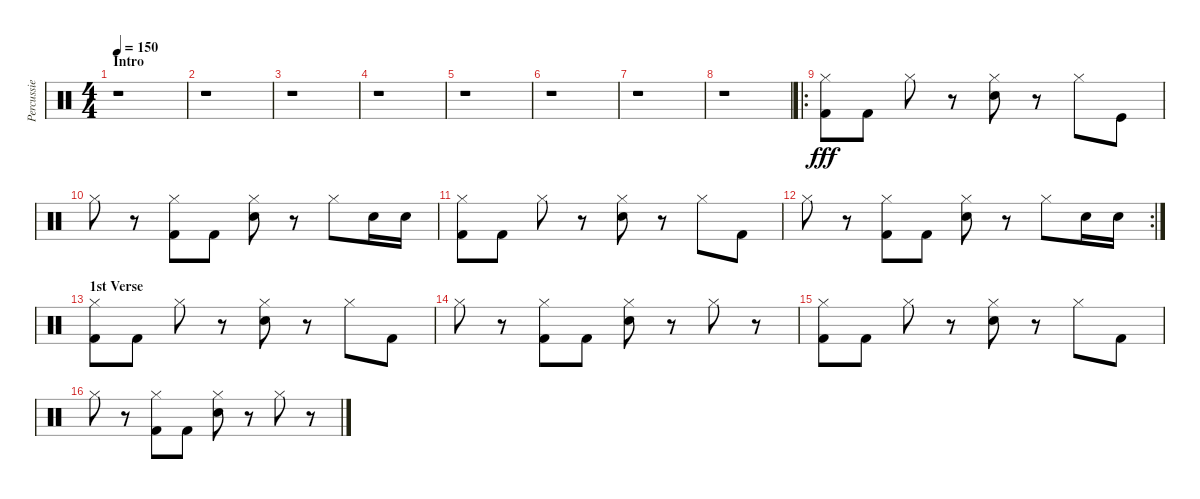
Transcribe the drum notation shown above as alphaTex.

\track ("Percussie" "Percussie") {instrument percussion}
\staff {score}
\articulation defaults
\ts (4 4)
\section ("" "Intro")
\tempo 150
\clef neutral
\ks c
r.1{dy fff} |
r.1 |
r.1 |
r.1 |
r.1 |
r.1 |
r.1 |
r.1 |
\ro
("Kick (hit) 2" "Hi-Hat (closed)").8 "Kick (hit) 2".8 "Hi-Hat (closed)".8 r.8 ("Electric Snare (hit)" "Hi-Hat (closed)").8 r.8 "Hi-Hat (closed)".8 "Kick (hit)".8 |
"Hi-Hat (closed)".8 r.8 ("Kick (hit) 2" "Hi-Hat (closed)").8 "Kick (hit) 2".8 ("Electric Snare (hit)" "Hi-Hat (closed)").8 r.8 "Hi-Hat (closed)".8 "Electric Snare (hit)".16 "Electric Snare (hit)".16 |
("Kick (hit) 2" "Hi-Hat (closed)").8 "Kick (hit) 2".8 "Hi-Hat (closed)".8 r.8 ("Electric Snare (hit)" "Hi-Hat (closed)").8 r.8 "Hi-Hat (closed)".8 "Kick (hit) 2".8 |
\rc 2 "Hi-Hat (closed)".8
r.8 ("Kick (hit) 2" "Hi-Hat (closed)").8 "Kick (hit) 2".8 ("Electric Snare (hit)" "Hi-Hat (closed)").8 r.8 "Hi-Hat (closed)".8 "Electric Snare (hit)".16 "Electric Snare (hit)".16 |
\section ("" "1st Verse")
("Kick (hit) 2" "Hi-Hat (closed)").8 "Kick (hit) 2".8 "Hi-Hat (closed)".8 r.8 ("Electric Snare (hit)" "Hi-Hat (closed)").8 r.8 "Hi-Hat (closed)".8 "Kick (hit) 2".8 |
"Hi-Hat (closed)".8 r.8 ("Kick (hit) 2" "Hi-Hat (closed)").8 "Kick (hit) 2".8 ("Electric Snare (hit)" "Hi-Hat (closed)").8 r.8 "Hi-Hat (closed)".8 r.8 |
("Kick (hit) 2" "Hi-Hat (closed)").8 "Kick (hit) 2".8 "Hi-Hat (closed)".8 r.8 ("Electric Snare (hit)" "Hi-Hat (closed)").8 r.8 "Hi-Hat (closed)".8 "Kick (hit) 2".8 |
"Hi-Hat (closed)".8 r.8 ("Kick (hit) 2" "Hi-Hat (closed)").8 "Kick (hit) 2".8 ("Electric Snare (hit)" "Hi-Hat (closed)").8 r.8 "Hi-Hat (closed)".8 r.8
